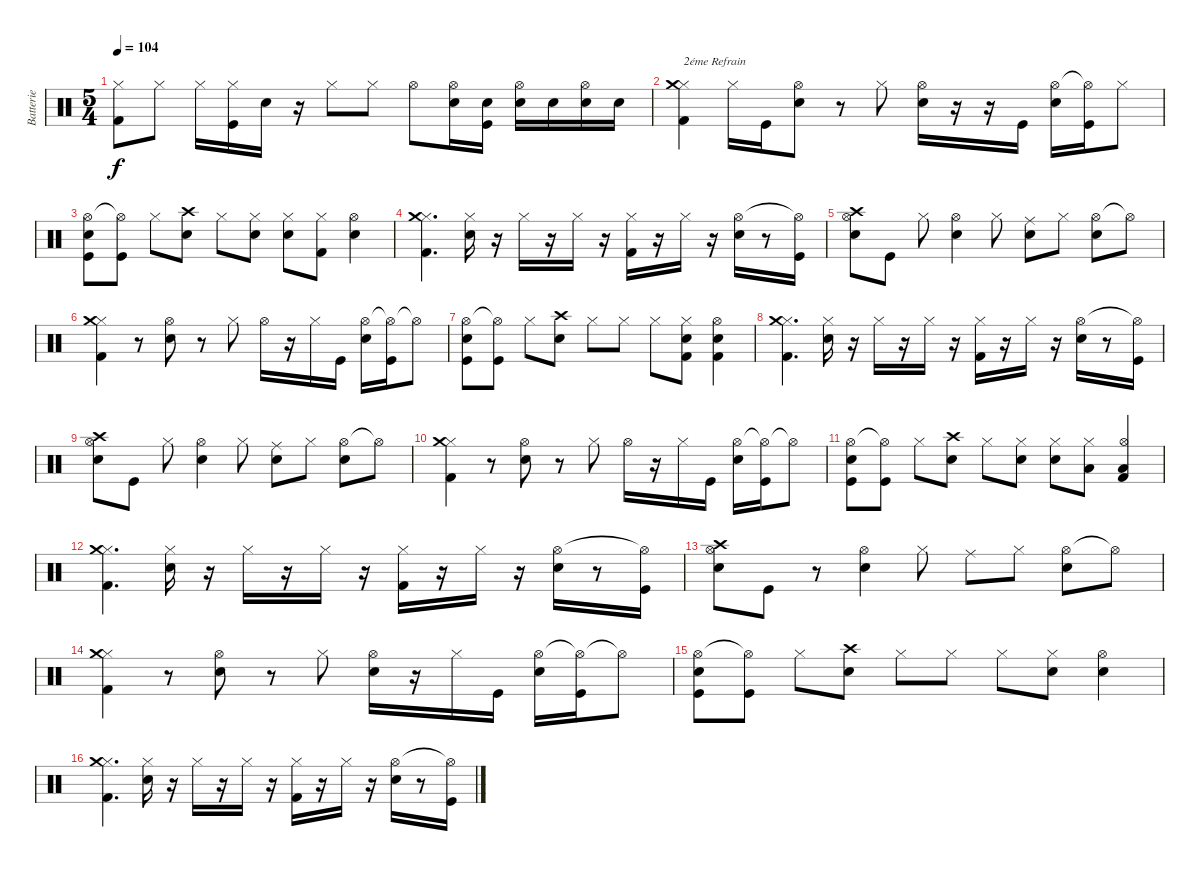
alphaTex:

\track ("Batterie" "Batterie") {instrument percussion}
\staff {score}
\articulation defaults
\ts (5 4)
\tempo 104
\clef neutral
\ks c
("Hi-Hat (closed)" "Kick (hit) 2").8{dy f} "Hi-Hat (closed)".8 "Hi-Hat (closed)".16 ("Hi-Hat (closed)" "Kick (hit)").16 "Electric Snare (hit)".16 r.16 "Hi-Hat (closed)".8 "Hi-Hat (closed)".8 "Hi-Hat (open)".8 ("Hi-Hat (open)" "Electric Snare (hit)").16 ("Electric Snare (hit)" "Kick (hit)").16 ("Hi-Hat (open)" "Electric Snare (hit)").16 "Electric Snare (hit)".16 ("Hi-Hat (open)" "Electric Snare (hit)").16 "Electric Snare (hit)".16 |
("Hi-Hat (closed)" "Crash medium (hit)" "Kick (hit) 2").4{txt "2éme Refrain"} "Hi-Hat (closed)".16 "Kick (hit)".16 ("Hi-Hat (open)" "Electric Snare (hit)").8 r.8 "Hi-Hat (closed)".8 ("Hi-Hat (open)" "Electric Snare (hit)").16 r.16 r.16 "Kick (hit)".16 ("Hi-Hat (open)" "Electric Snare (hit)").16 ("Hi-Hat (open)"{t} "Kick (hit)").16 "Hi-Hat (closed)".8 |
("Hi-Hat (open)" "Electric Snare (hit)" "Kick (hit)").8 ("Hi-Hat (open)"{t} "Kick (hit)").8 "Hi-Hat (closed)".8 ("Crash high (hit)" "Electric Snare (hit)").8 "Hi-Hat (closed)".8 ("Hi-Hat (closed)" "Electric Snare (hit)").8 ("Hi-Hat (closed)" "Electric Snare (hit)").8 ("Hi-Hat (closed)" "Kick (hit) 2").8 ("Hi-Hat (open)" "Electric Snare (hit)").4 |
("Hi-Hat (closed)" "Crash medium (hit)" "Kick (hit) 2").4{d} ("Hi-Hat (closed)" "Electric Snare (hit)").16 r.16 "Hi-Hat (closed)".16 r.16 "Hi-Hat (closed)".16 r.16 ("Hi-Hat (closed)" "Kick (hit) 2").16 r.16 "Hi-Hat (closed)".16 r.16 ("Hi-Hat (open)" "Electric Snare (hit)").16 r.8 ("Hi-Hat (open)"{t} "Kick (hit)").16 |
("Hi-Hat (open)" "Crash high (hit)" "Electric Snare (hit)").8 "Kick (hit)".8 "Hi-Hat (closed)".8 ("Hi-Hat (open)" "Electric Snare (hit)").4 "Hi-Hat (closed)".8 ("Ride (middle)" "Electric Snare (hit)").8 "Hi-Hat (closed)".8 ("Hi-Hat (open)" "Electric Snare (hit)").8 "Hi-Hat (open)"{t}.8 |
("Hi-Hat (closed)" "Crash medium (hit)" "Kick (hit) 2").4 r.8 ("Hi-Hat (open)" "Electric Snare (hit)").8 r.8 "Hi-Hat (closed)".8 "Hi-Hat (open)".16 r.16 "Hi-Hat (closed)".16 "Kick (hit)".16 ("Hi-Hat (open)" "Electric Snare (hit)").16 ("Hi-Hat (open)"{t} "Kick (hit)").16 "Hi-Hat (open)"{t}.8 |
("Hi-Hat (open)" "Electric Snare (hit)" "Kick (hit)").8 ("Hi-Hat (open)"{t} "Kick (hit)").8 "Hi-Hat (closed)".8 ("Crash high (hit)" "Electric Snare (hit)").8 "Hi-Hat (closed)".8 "Hi-Hat (closed)".8 "Hi-Hat (closed)".8 ("Hi-Hat (closed)" "Electric Snare (hit)" "Kick (hit) 2").8 ("Hi-Hat (open)" "Electric Snare (hit)" "Kick (hit) 2").4 |
("Hi-Hat (closed)" "Crash medium (hit)" "Kick (hit) 2").4{d} ("Hi-Hat (closed)" "Electric Snare (hit)").16 r.16 "Hi-Hat (closed)".16 r.16 "Hi-Hat (closed)".16 r.16 ("Hi-Hat (closed)" "Kick (hit) 2").16 r.16 "Hi-Hat (closed)".16 r.16 ("Hi-Hat (open)" "Electric Snare (hit)").16 r.8 ("Hi-Hat (open)"{t} "Kick (hit)").16 |
("Hi-Hat (open)" "Crash high (hit)" "Electric Snare (hit)").8 "Kick (hit)".8 "Hi-Hat (closed)".8 ("Hi-Hat (open)" "Electric Snare (hit)").4 "Hi-Hat (closed)".8 ("Ride (middle)" "Electric Snare (hit)").8 "Hi-Hat (closed)".8 ("Hi-Hat (open)" "Electric Snare (hit)").8 "Hi-Hat (open)"{t}.8 |
("Hi-Hat (closed)" "Crash medium (hit)" "Kick (hit) 2").4 r.8 ("Hi-Hat (open)" "Electric Snare (hit)").8 r.8 "Hi-Hat (closed)".8 "Hi-Hat (open)".16 r.16 "Hi-Hat (closed)".16 "Kick (hit)".16 ("Hi-Hat (open)" "Electric Snare (hit)").16 ("Hi-Hat (open)"{t} "Kick (hit)").16 "Hi-Hat (open)"{t}.8 |
("Hi-Hat (open)" "Electric Snare (hit)" "Kick (hit)").8 ("Hi-Hat (open)"{t} "Kick (hit)").8 "Hi-Hat (closed)".8 ("Crash high (hit)" "Electric Snare (hit)").8 "Hi-Hat (closed)".8 ("Hi-Hat (closed)" "Electric Snare (hit)").8 ("Hi-Hat (closed)" "Electric Snare (hit)").8 ("Hi-Hat (closed)" "Low Tom (hit)").8 ("Hi-Hat (open)" "Low Tom (hit)" "Kick (hit) 2").4 |
("Hi-Hat (closed)" "Crash medium (hit)" "Kick (hit) 2").4{d} ("Hi-Hat (closed)" "Electric Snare (hit)").16 r.16 "Hi-Hat (closed)".16 r.16 "Hi-Hat (closed)".16 r.16 ("Hi-Hat (closed)" "Kick (hit) 2").16 r.16 "Hi-Hat (closed)".16 r.16 ("Hi-Hat (open)" "Electric Snare (hit)").16 r.8 ("Hi-Hat (open)"{t} "Kick (hit)").16 |
("Hi-Hat (open)" "Crash high (hit)" "Electric Snare (hit)").8 "Kick (hit)".8 r.8 ("Hi-Hat (open)" "Electric Snare (hit)").4 "Hi-Hat (closed)".8 "Ride (middle)".8 "Hi-Hat (closed)".8 ("Hi-Hat (open)" "Electric Snare (hit)").8 "Hi-Hat (open)"{t}.8 |
("Hi-Hat (closed)" "Crash medium (hit)" "Kick (hit) 2").4 r.8 ("Hi-Hat (open)" "Electric Snare (hit)").8 r.8 "Hi-Hat (closed)".8 ("Hi-Hat (open)" "Electric Snare (hit)").16 r.16 "Hi-Hat (closed)".16 "Kick (hit)".16 ("Hi-Hat (open)" "Electric Snare (hit)").16 ("Hi-Hat (open)"{t} "Kick (hit)").16 "Hi-Hat (open)"{t}.8 |
("Hi-Hat (open)" "Electric Snare (hit)" "Kick (hit)").8 ("Hi-Hat (open)"{t} "Kick (hit)").8 "Hi-Hat (closed)".8 ("Crash high (hit)" "Electric Snare (hit)").8 "Hi-Hat (closed)".8 "Hi-Hat (closed)".8 "Hi-Hat (closed)".8 ("Hi-Hat (closed)" "Electric Snare (hit)").8 ("Hi-Hat (open)" "Electric Snare (hit)").4 |
("Hi-Hat (closed)" "Crash medium (hit)" "Kick (hit) 2").4{d} ("Hi-Hat (closed)" "Electric Snare (hit)").16 r.16 "Hi-Hat (closed)".16 r.16 "Hi-Hat (closed)".16 r.16 ("Hi-Hat (closed)" "Kick (hit) 2").16 r.16 "Hi-Hat (closed)".16 r.16 ("Hi-Hat (open)" "Electric Snare (hit)").16 r.8 ("Hi-Hat (open)"{t} "Kick (hit)").16
